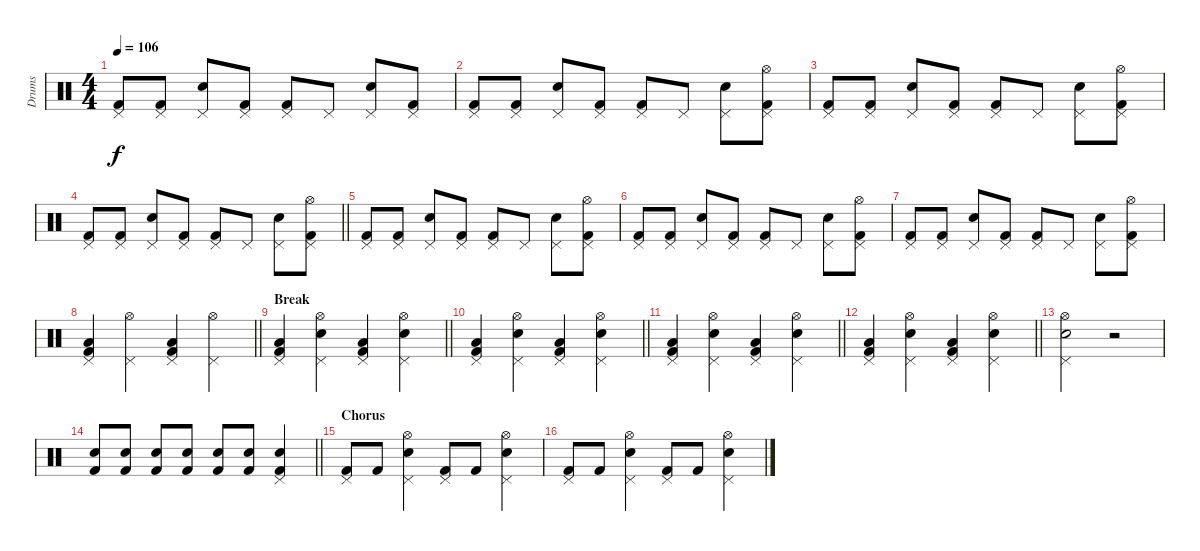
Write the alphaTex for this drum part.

\track ("Drums" "Drums") {instrument percussion}
\staff {score}
\articulation defaults
\ts (4 4)
\tempo 106
\clef neutral
\ks c
("Pedal Hi-Hat (hit)" "Kick (hit) 2").8{dy f} ("Pedal Hi-Hat (hit)" "Kick (hit) 2").8 ("Pedal Hi-Hat (hit)" "Electric Snare (hit)").8 ("Pedal Hi-Hat (hit)" "Kick (hit) 2").8 ("Pedal Hi-Hat (hit)" "Kick (hit) 2").8 "Pedal Hi-Hat (hit)".8 ("Pedal Hi-Hat (hit)" "Electric Snare (hit)").8 ("Pedal Hi-Hat (hit)" "Kick (hit) 2").8 |
("Pedal Hi-Hat (hit)" "Kick (hit) 2").8 ("Pedal Hi-Hat (hit)" "Kick (hit) 2").8 ("Pedal Hi-Hat (hit)" "Electric Snare (hit)").8 ("Pedal Hi-Hat (hit)" "Kick (hit) 2").8 ("Pedal Hi-Hat (hit)" "Kick (hit) 2").8 "Pedal Hi-Hat (hit)".8 ("Pedal Hi-Hat (hit)" "Electric Snare (hit)").8 ("Pedal Hi-Hat (hit)" "Hi-Hat (open)" "Kick (hit) 2").8 |
("Pedal Hi-Hat (hit)" "Kick (hit) 2").8 ("Pedal Hi-Hat (hit)" "Kick (hit) 2").8 ("Pedal Hi-Hat (hit)" "Electric Snare (hit)").8 ("Pedal Hi-Hat (hit)" "Kick (hit) 2").8 ("Pedal Hi-Hat (hit)" "Kick (hit) 2").8 "Pedal Hi-Hat (hit)".8 ("Pedal Hi-Hat (hit)" "Electric Snare (hit)").8 ("Pedal Hi-Hat (hit)" "Hi-Hat (open)" "Kick (hit) 2").8 |
\barLineRight lightlight
("Pedal Hi-Hat (hit)" "Kick (hit) 2").8 ("Pedal Hi-Hat (hit)" "Kick (hit) 2").8 ("Pedal Hi-Hat (hit)" "Electric Snare (hit)").8 ("Pedal Hi-Hat (hit)" "Kick (hit) 2").8 ("Pedal Hi-Hat (hit)" "Kick (hit) 2").8 "Pedal Hi-Hat (hit)".8 ("Pedal Hi-Hat (hit)" "Electric Snare (hit)").8 ("Pedal Hi-Hat (hit)" "Hi-Hat (open)" "Kick (hit) 2").8 |
("Pedal Hi-Hat (hit)" "Kick (hit) 2").8 ("Pedal Hi-Hat (hit)" "Kick (hit) 2").8 ("Pedal Hi-Hat (hit)" "Electric Snare (hit)").8 ("Pedal Hi-Hat (hit)" "Kick (hit) 2").8 ("Pedal Hi-Hat (hit)" "Kick (hit) 2").8 "Pedal Hi-Hat (hit)".8 ("Pedal Hi-Hat (hit)" "Electric Snare (hit)").8 ("Pedal Hi-Hat (hit)" "Hi-Hat (open)" "Kick (hit) 2").8 |
("Pedal Hi-Hat (hit)" "Kick (hit) 2").8 ("Pedal Hi-Hat (hit)" "Kick (hit) 2").8 ("Pedal Hi-Hat (hit)" "Electric Snare (hit)").8 ("Pedal Hi-Hat (hit)" "Kick (hit) 2").8 ("Pedal Hi-Hat (hit)" "Kick (hit) 2").8 "Pedal Hi-Hat (hit)".8 ("Pedal Hi-Hat (hit)" "Electric Snare (hit)").8 ("Pedal Hi-Hat (hit)" "Hi-Hat (open)" "Kick (hit) 2").8 |
("Pedal Hi-Hat (hit)" "Kick (hit) 2").8 ("Pedal Hi-Hat (hit)" "Kick (hit) 2").8 ("Pedal Hi-Hat (hit)" "Electric Snare (hit)").8 ("Pedal Hi-Hat (hit)" "Kick (hit) 2").8 ("Pedal Hi-Hat (hit)" "Kick (hit) 2").8 "Pedal Hi-Hat (hit)".8 ("Pedal Hi-Hat (hit)" "Electric Snare (hit)").8 ("Pedal Hi-Hat (hit)" "Hi-Hat (open)" "Kick (hit) 2").8 |
\barLineRight lightlight
("Pedal Hi-Hat (hit)" "Kick (hit) 2" "Low Tom (hit)").4 ("Pedal Hi-Hat (hit)" "Hi-Hat (open)").4 ("Pedal Hi-Hat (hit)" "Kick (hit) 2" "Low Tom (hit)").4 ("Pedal Hi-Hat (hit)" "Hi-Hat (open)").4 |
\section ("" "Break")
\barLineRight lightlight
("Pedal Hi-Hat (hit)" "Kick (hit) 2" "Low Tom (hit)").4 ("Pedal Hi-Hat (hit)" "Hi-Hat (open)" "Electric Snare (hit)").4 ("Pedal Hi-Hat (hit)" "Kick (hit) 2" "Low Tom (hit)").4 ("Pedal Hi-Hat (hit)" "Hi-Hat (open)" "Electric Snare (hit)").4 |
\barLineRight lightlight
("Pedal Hi-Hat (hit)" "Kick (hit) 2" "Low Tom (hit)").4 ("Pedal Hi-Hat (hit)" "Hi-Hat (open)" "Electric Snare (hit)").4 ("Pedal Hi-Hat (hit)" "Kick (hit) 2" "Low Tom (hit)").4 ("Pedal Hi-Hat (hit)" "Hi-Hat (open)" "Electric Snare (hit)").4 |
\barLineRight lightlight
("Pedal Hi-Hat (hit)" "Kick (hit) 2" "Low Tom (hit)").4 ("Pedal Hi-Hat (hit)" "Hi-Hat (open)" "Electric Snare (hit)").4 ("Pedal Hi-Hat (hit)" "Kick (hit) 2" "Low Tom (hit)").4 ("Pedal Hi-Hat (hit)" "Hi-Hat (open)" "Electric Snare (hit)").4 |
\barLineRight lightlight
("Pedal Hi-Hat (hit)" "Kick (hit) 2" "Low Tom (hit)").4 ("Pedal Hi-Hat (hit)" "Hi-Hat (open)" "Electric Snare (hit)").4 ("Pedal Hi-Hat (hit)" "Kick (hit) 2" "Low Tom (hit)").4 ("Pedal Hi-Hat (hit)" "Hi-Hat (open)" "Electric Snare (hit)").4 |
("Pedal Hi-Hat (hit)" "Hi-Hat (open)" "Electric Snare (hit)").2 r.2 |
\barLineRight lightlight
("Kick (hit) 2" "Electric Snare (hit)").8 ("Kick (hit) 2" "Electric Snare (hit)").8 ("Kick (hit) 2" "Electric Snare (hit)").8 ("Kick (hit) 2" "Electric Snare (hit)").8 ("Kick (hit) 2" "Electric Snare (hit)").8 ("Kick (hit) 2" "Electric Snare (hit)").8 ("Kick (hit) 2" "Electric Snare (hit)" "Pedal Hi-Hat (hit)").4 |
\section ("" "Chorus")
("Kick (hit) 2" "Pedal Hi-Hat (hit)").8 "Kick (hit) 2".8 ("Pedal Hi-Hat (hit)" "Electric Snare (hit)" "Hi-Hat (open)").4 ("Kick (hit) 2" "Pedal Hi-Hat (hit)").8 "Kick (hit) 2".8 ("Pedal Hi-Hat (hit)" "Electric Snare (hit)" "Hi-Hat (open)").4 |
("Kick (hit) 2" "Pedal Hi-Hat (hit)").8 "Kick (hit) 2".8 ("Pedal Hi-Hat (hit)" "Electric Snare (hit)" "Hi-Hat (open)").4 ("Kick (hit) 2" "Pedal Hi-Hat (hit)").8 "Kick (hit) 2".8 ("Pedal Hi-Hat (hit)" "Electric Snare (hit)" "Hi-Hat (open)").4
